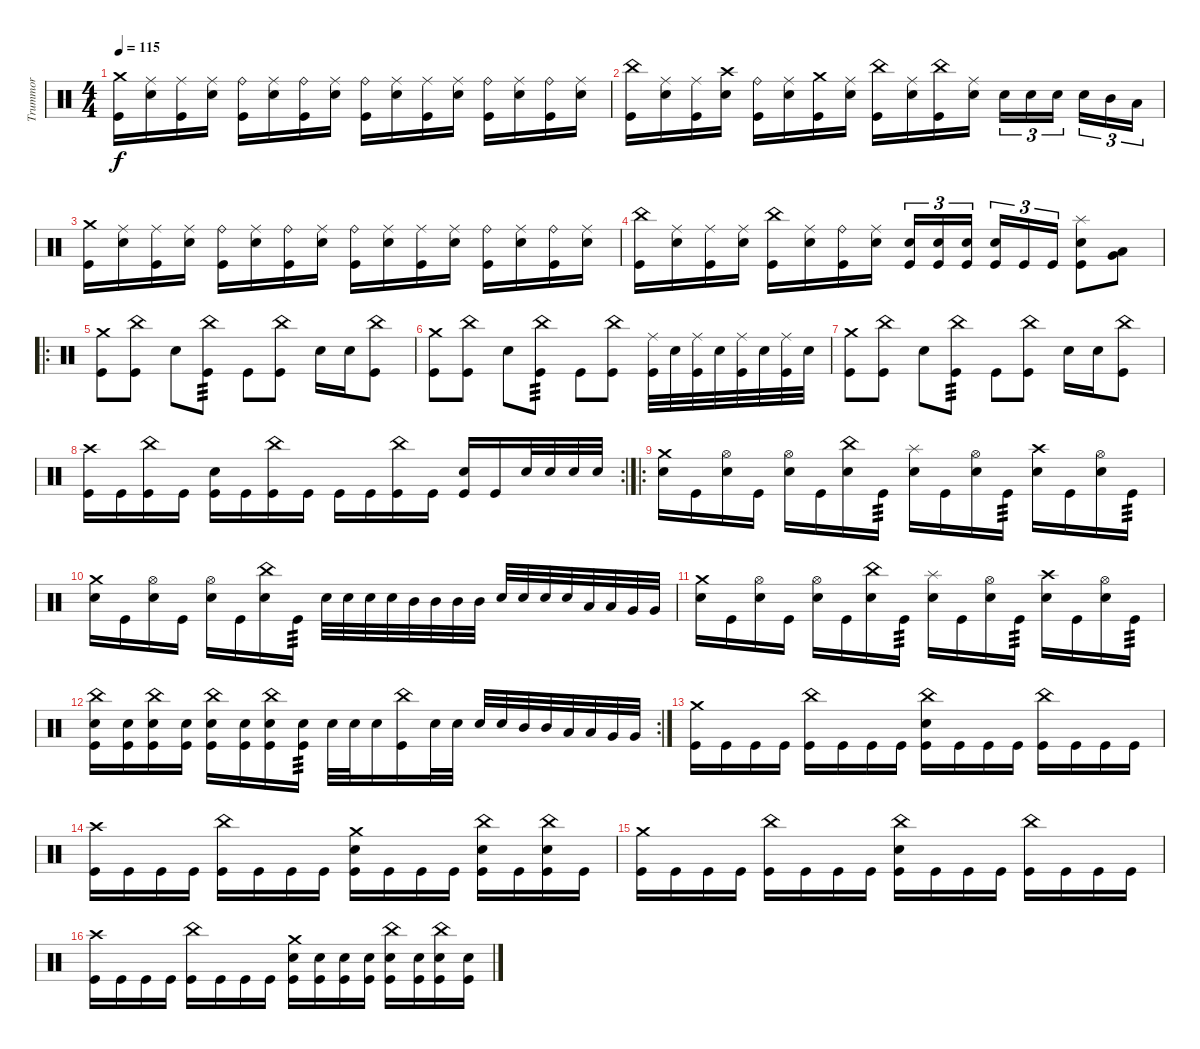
\track ("Trummor" "Trummor") {instrument percussion}
\staff {score}
\articulation defaults
\ts (4 4)
\tempo 115
\clef neutral
\ks c
("Crash medium (hit)" "Kick (hit)").16{dy f} ("Ride (middle)" "Electric Snare (hit)").16 ("Ride (middle)" "Kick (hit)").16 ("Ride (middle)" "Electric Snare (hit)").16 ("Ride (bell)" "Kick (hit)").16 ("Ride (middle)" "Electric Snare (hit)").16 ("Ride (bell)" "Kick (hit)").16 ("Ride (middle)" "Electric Snare (hit)").16 ("Ride (bell)" "Kick (hit)").16 ("Ride (middle)" "Electric Snare (hit)").16 ("Ride (middle)" "Kick (hit)").16 ("Ride (middle)" "Electric Snare (hit)").16 ("Ride (bell)" "Kick (hit)").16 ("Ride (middle)" "Electric Snare (hit)").16 ("Ride (bell)" "Kick (hit)").16 ("Ride (middle)" "Electric Snare (hit)").16 |
("China (hit)" "Kick (hit)").16 ("Ride (middle)" "Electric Snare (hit)").16 ("Ride (middle)" "Kick (hit)").16 ("Crash high (hit)" "Electric Snare (hit)").16 ("Ride (bell)" "Kick (hit)").16 ("Ride (middle)" "Electric Snare (hit)").16 ("Crash medium (hit)" "Kick (hit)").16 ("Ride (middle)" "Electric Snare (hit)").16 ("China (hit)" "Kick (hit)").16 ("Ride (middle)" "Electric Snare (hit)").16 ("China (hit)" "Kick (hit)").16 ("Ride (middle)" "Electric Snare (hit)").16 "Electric Snare (hit)".16{tu (3 2)} "Electric Snare (hit)".16{tu (3 2)} "Electric Snare (hit)".16{tu (3 2) beam splitsecondary} "Electric Snare (hit)".16{tu (3 2)} "Mid Tom (hit)".16{tu (3 2)} "Low Tom (hit)".16{tu (3 2)} |
("Crash medium (hit)" "Kick (hit)").16 ("Ride (middle)" "Electric Snare (hit)").16 ("Ride (middle)" "Kick (hit)").16 ("Ride (middle)" "Electric Snare (hit)").16 ("Ride (bell)" "Kick (hit)").16 ("Ride (middle)" "Electric Snare (hit)").16 ("Ride (bell)" "Kick (hit)").16 ("Ride (middle)" "Electric Snare (hit)").16 ("Ride (bell)" "Kick (hit)").16 ("Ride (middle)" "Electric Snare (hit)").16 ("Ride (middle)" "Kick (hit)").16 ("Ride (middle)" "Electric Snare (hit)").16 ("Ride (bell)" "Kick (hit)").16 ("Ride (middle)" "Electric Snare (hit)").16 ("Ride (bell)" "Kick (hit)").16 ("Ride (middle)" "Electric Snare (hit)").16 |
("China (hit)" "Kick (hit)").16 ("Ride (middle)" "Electric Snare (hit)").16 ("Ride (middle)" "Kick (hit)").16 ("Ride (middle)" "Electric Snare (hit)").16 ("China (hit)" "Kick (hit)").16 ("Ride (middle)" "Electric Snare (hit)").16 ("Ride (bell)" "Kick (hit)").16 ("Ride (middle)" "Electric Snare (hit)").16 ("Electric Snare (hit)" "Kick (hit)").16{tu (3 2)} ("Electric Snare (hit)" "Kick (hit)").16{tu (3 2)} ("Electric Snare (hit)" "Kick (hit)").16{tu (3 2) beam splitsecondary} ("Electric Snare (hit)" "Kick (hit)").16{tu (3 2)} "Kick (hit)".16{tu (3 2)} "Kick (hit)".16{tu (3 2)} ("Splash (hit)" "Electric Snare (hit)" "Kick (hit)").8 ("Low Tom (hit)" "Very Low Tom (hit)").8 |
\ro
("Crash medium (hit)" "Kick (hit)").8 ("China (hit)" "Kick (hit)").8 "Electric Snare (hit)".8 ("China (hit)" "Kick (hit)").8{tp 3} "Kick (hit)".8 ("China (hit)" "Kick (hit)").8 "Electric Snare (hit)".16 "Electric Snare (hit)".16 ("China (hit)" "Kick (hit)").8 |
("Crash medium (hit)" "Kick (hit)").8 ("China (hit)" "Kick (hit)").8 "Electric Snare (hit)".8 ("China (hit)" "Kick (hit)").8{tp 3} "Kick (hit)".8 ("China (hit)" "Kick (hit)").8 ("Ride (middle)" "Kick (hit)").32 "Electric Snare (hit)".32 ("Ride (middle)" "Kick (hit)").32 "Electric Snare (hit)".32 ("Ride (middle)" "Kick (hit)").32 "Electric Snare (hit)".32 ("Ride (middle)" "Kick (hit)").32 "Electric Snare (hit)".32 |
("Crash medium (hit)" "Kick (hit)").8 ("China (hit)" "Kick (hit)").8 "Electric Snare (hit)".8 ("China (hit)" "Kick (hit)").8{tp 3} "Kick (hit)".8 ("China (hit)" "Kick (hit)").8 "Electric Snare (hit)".16 "Electric Snare (hit)".16 ("China (hit)" "Kick (hit)").8 |
\rc 2
("Crash high (hit)" "Kick (hit)").16 "Kick (hit)".16 ("China (hit)" "Kick (hit)").16 "Kick (hit)".16 ("Electric Snare (hit)" "Kick (hit)").16 "Kick (hit)".16 ("China (hit)" "Kick (hit)").16 "Kick (hit)".16 "Kick (hit)".16 "Kick (hit)".16 ("China (hit)" "Kick (hit)").16 "Kick (hit)".16 ("Electric Snare (hit)" "Kick (hit)").16 "Kick (hit)".16 "Electric Snare (hit)".32 "Electric Snare (hit)".32 "Electric Snare (hit)".32 "Electric Snare (hit)".32 |
\ro
("Crash medium (hit)" "Electric Snare (hit)").16 "Kick (hit)".16 ("Hi-Hat (open)" "Electric Snare (hit)").16 "Kick (hit)".16 ("Hi-Hat (open)" "Electric Snare (hit)").16 "Kick (hit)".16 ("China (hit)" "Electric Snare (hit)").16 "Kick (hit)".16{tp 3} ("Splash (hit)" "Electric Snare (hit)").16 "Kick (hit)".16 ("Hi-Hat (open)" "Electric Snare (hit)").16 "Kick (hit)".16{tp 3} ("Crash high (hit)" "Electric Snare (hit)").16 "Kick (hit)".16 ("Hi-Hat (open)" "Electric Snare (hit)").16 "Kick (hit)".16{tp 3} |
("Crash medium (hit)" "Electric Snare (hit)").16 "Kick (hit)".16 ("Hi-Hat (open)" "Electric Snare (hit)").16 "Kick (hit)".16 ("Hi-Hat (open)" "Electric Snare (hit)").16 "Kick (hit)".16 ("China (hit)" "Electric Snare (hit)").16 "Kick (hit)".16{tp 3} "Electric Snare (hit)".32 "Electric Snare (hit)".32 "Electric Snare (hit)".32 "Electric Snare (hit)".32 "Mid Tom (hit)".32 "Mid Tom (hit)".32 "Mid Tom (hit)".32 "Mid Tom (hit)".32 "Electric Snare (hit)".32 "Electric Snare (hit)".32 "Electric Snare (hit)".32 "Electric Snare (hit)".32 "Low Tom (hit)".32 "Low Tom (hit)".32 "Very Low Tom (hit)".32 "Very Low Tom (hit)".32 |
("Crash medium (hit)" "Electric Snare (hit)").16 "Kick (hit)".16 ("Hi-Hat (open)" "Electric Snare (hit)").16 "Kick (hit)".16 ("Hi-Hat (open)" "Electric Snare (hit)").16 "Kick (hit)".16 ("China (hit)" "Electric Snare (hit)").16 "Kick (hit)".16{tp 3} ("Splash (hit)" "Electric Snare (hit)").16 "Kick (hit)".16 ("Hi-Hat (open)" "Electric Snare (hit)").16 "Kick (hit)".16{tp 3} ("Crash high (hit)" "Electric Snare (hit)").16 "Kick (hit)".16 ("Hi-Hat (open)" "Electric Snare (hit)").16 "Kick (hit)".16{tp 3} |
\rc 2
("China (hit)" "Electric Snare (hit)" "Kick (hit)").16 ("Electric Snare (hit)" "Kick (hit)").16 ("China (hit)" "Electric Snare (hit)" "Kick (hit)").16 ("Electric Snare (hit)" "Kick (hit)").16 ("China (hit)" "Electric Snare (hit)" "Kick (hit)").16 ("Electric Snare (hit)" "Kick (hit)").16 ("China (hit)" "Electric Snare (hit)" "Kick (hit)").16 ("Electric Snare (hit)" "Kick (hit)").16{tp 3} "Electric Snare (hit)".32 "Electric Snare (hit)".32 "Electric Snare (hit)".16 ("China (hit)" "Kick (hit)").16 "Electric Snare (hit)".32 "Electric Snare (hit)".32 "Electric Snare (hit)".32 "Electric Snare (hit)".32 "Mid Tom (hit)".32 "Mid Tom (hit)".32 "Low Tom (hit)".32 "Low Tom (hit)".32 "Very Low Tom (hit)".32 "Very Low Tom (hit)".32 |
("Crash medium (hit)" "Kick (hit)").16 "Kick (hit)".16 "Kick (hit)".16 "Kick (hit)".16 ("China (hit)" "Kick (hit)").16 "Kick (hit)".16 "Kick (hit)".16 "Kick (hit)".16 ("China (hit)" "Electric Snare (hit)" "Kick (hit)").16 "Kick (hit)".16 "Kick (hit)".16 "Kick (hit)".16 ("China (hit)" "Kick (hit)").16 "Kick (hit)".16 "Kick (hit)".16 "Kick (hit)".16 |
("Crash high (hit)" "Kick (hit)").16 "Kick (hit)".16 "Kick (hit)".16 "Kick (hit)".16 ("China (hit)" "Kick (hit)").16 "Kick (hit)".16 "Kick (hit)".16 "Kick (hit)".16 ("Crash medium (hit)" "Electric Snare (hit)" "Kick (hit)").16 "Kick (hit)".16 "Kick (hit)".16 "Kick (hit)".16 ("China (hit)" "Electric Snare (hit)" "Kick (hit)").16 "Kick (hit)".16 ("China (hit)" "Electric Snare (hit)" "Kick (hit)").16 "Kick (hit)".16 |
("Crash medium (hit)" "Kick (hit)").16 "Kick (hit)".16 "Kick (hit)".16 "Kick (hit)".16 ("China (hit)" "Kick (hit)").16 "Kick (hit)".16 "Kick (hit)".16 "Kick (hit)".16 ("China (hit)" "Electric Snare (hit)" "Kick (hit)").16 "Kick (hit)".16 "Kick (hit)".16 "Kick (hit)".16 ("China (hit)" "Kick (hit)").16 "Kick (hit)".16 "Kick (hit)".16 "Kick (hit)".16 |
("Crash high (hit)" "Kick (hit)").16 "Kick (hit)".16 "Kick (hit)".16 "Kick (hit)".16 ("China (hit)" "Kick (hit)").16 "Kick (hit)".16 "Kick (hit)".16 "Kick (hit)".16 ("Crash medium (hit)" "Electric Snare (hit)" "Kick (hit)").16 ("Electric Snare (hit)" "Kick (hit)").16 ("Electric Snare (hit)" "Kick (hit)").16 ("Electric Snare (hit)" "Kick (hit)").16 ("China (hit)" "Electric Snare (hit)" "Kick (hit)").16 ("Electric Snare (hit)" "Kick (hit)").16 ("China (hit)" "Electric Snare (hit)" "Kick (hit)").16 ("Electric Snare (hit)" "Kick (hit)").16
